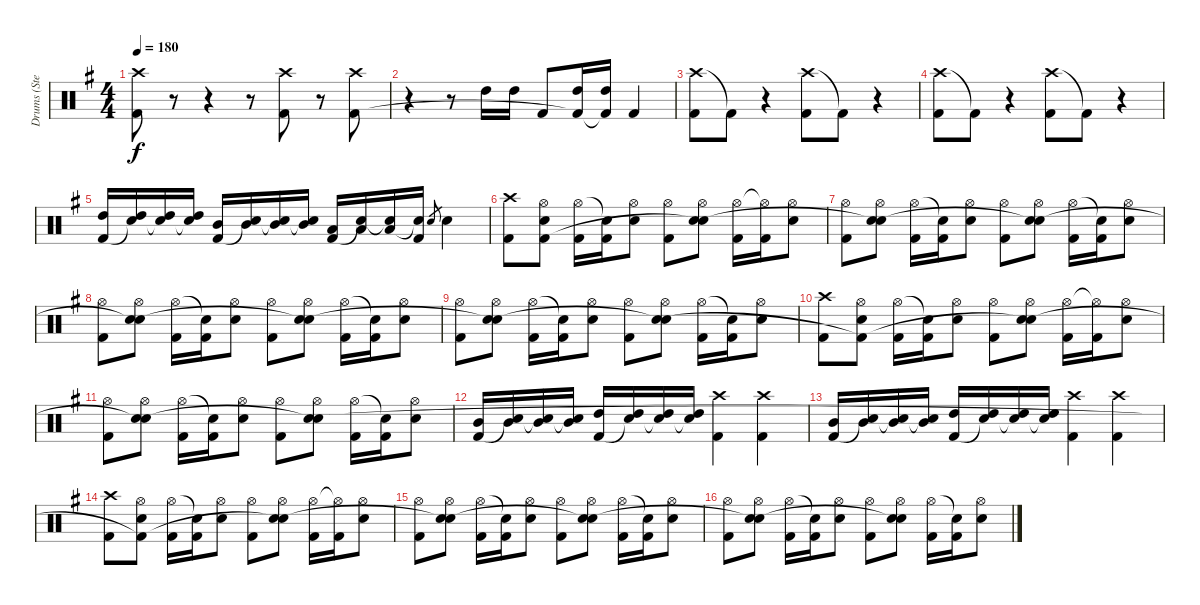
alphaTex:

\track ("Drums (Stevo)" "Drums (Ste") {instrument percussion}
\staff {score}
\articulation defaults
\ts (4 4)
\tempo 180
\clef neutral
\ks g
("Crash high (hit)" "Kick (hit) 2").8{dy f} r.8 r.4 r.8 ("Crash high (hit)" "Kick (hit) 2").8 r.8 ("Crash high (hit)" "Kick (hit) 2").8 |
r.4 r.8 "High Tom (hit)".16 "High Tom (hit)".16 "Kick (hit) 2".8 ("High Tom (hit)" "Kick (hit) 2"{t}).16 ("High Tom (hit)" "Kick (hit) 2"{t}).16 "Kick (hit) 2".4 |
("Crash high (hit)" "Kick (hit) 2").8 "Kick (hit) 2"{t}.8 r.4 ("Crash high (hit)" "Kick (hit) 2").8 "Kick (hit) 2"{t}.8 r.4 |
("Crash high (hit)" "Kick (hit) 2").8 "Kick (hit) 2"{t}.8 r.4 ("Crash high (hit)" "Kick (hit) 2").8 "Kick (hit) 2"{t}.8 r.4 |
("High Tom (hit)" "Kick (hit) 2").16 ("High Tom (hit)" "Snare (hit)"{t}).16 ("High Tom (hit)" "Snare (hit)"{t}).16 ("High Tom (hit)" "Snare (hit)"{t}).16 ("Mid Tom (hit)" "Kick (hit) 2").16 ("Mid Tom (hit)" "Snare (hit)"{t}).16 ("Mid Tom (hit)" "Snare (hit)"{t}).16 ("Mid Tom (hit)" "Snare (hit)"{t}).16 ("Low Tom (hit)" "Kick (hit) 2").16 ("Low Tom (hit)" "Snare (hit)"{t}).16 ("Low Tom (hit)" "Snare (hit)"{t}).16 ("Snare (hit)"{t} "Kick (hit) 2").16 "Snare (hit) 2".8{gr} "Snare (hit) 2".4 |
("Crash high (hit)" "Kick (hit) 2").8 ("Hi-Hat (open)" "Snare (hit) 2" "Kick (hit) 2").8 ("Hi-Hat (open)" "Kick (hit) 2").16 ("Snare (hit)"{t} "Kick (hit) 2").16 ("Hi-Hat (open)" "Snare (hit) 2").8 ("Hi-Hat (open)" "Kick (hit) 2").8 ("Hi-Hat (open)" "Snare (hit) 2" "Snare (hit)"{t}).8 ("Hi-Hat (open)" "Kick (hit) 2").16 ("Hi-Hat (open)"{t} "Kick (hit) 2").16 ("Hi-Hat (open)" "Snare (hit) 2").8 |
("Hi-Hat (open)" "Kick (hit) 2").8 ("Hi-Hat (open)" "Snare (hit) 2" "Snare (hit)"{t}).8 ("Hi-Hat (open)" "Kick (hit) 2").16 ("Snare (hit)"{t} "Kick (hit) 2").16 ("Hi-Hat (open)" "Snare (hit) 2").8 ("Hi-Hat (open)" "Kick (hit) 2").8 ("Hi-Hat (open)" "Snare (hit) 2" "Snare (hit)"{t}).8 ("Hi-Hat (open)" "Kick (hit) 2").16 ("Snare (hit)"{t} "Kick (hit) 2").16 ("Hi-Hat (open)" "Snare (hit) 2").8 |
("Hi-Hat (open)" "Kick (hit) 2").8 ("Hi-Hat (open)" "Snare (hit) 2" "Snare (hit)"{t}).8 ("Hi-Hat (open)" "Kick (hit) 2").16 ("Snare (hit)"{t} "Kick (hit) 2").16 ("Hi-Hat (open)" "Snare (hit) 2").8 ("Hi-Hat (open)" "Kick (hit) 2").8 ("Hi-Hat (open)" "Snare (hit) 2" "Snare (hit)"{t}).8 ("Hi-Hat (open)" "Kick (hit) 2").16 ("Snare (hit)"{t} "Kick (hit) 2").16 ("Hi-Hat (open)" "Snare (hit) 2").8 |
("Hi-Hat (open)" "Kick (hit) 2").8 ("Hi-Hat (open)" "Snare (hit) 2" "Snare (hit)"{t}).8 ("Hi-Hat (open)" "Kick (hit) 2").16 ("Snare (hit)"{t} "Kick (hit) 2").16 ("Hi-Hat (open)" "Snare (hit) 2").8 ("Hi-Hat (open)" "Kick (hit) 2").8 ("Hi-Hat (open)" "Snare (hit) 2" "Snare (hit)"{t}).8 ("Hi-Hat (open)" "Kick (hit) 2").16 ("Snare (hit)"{t} "Kick (hit) 2").16 ("Hi-Hat (open)" "Snare (hit) 2").8 |
("Crash high (hit)" "Kick (hit) 2").8 ("Hi-Hat (open)" "Snare (hit) 2" "Kick (hit) 2"{t}).8 ("Hi-Hat (open)" "Kick (hit) 2").16 ("Snare (hit)"{t} "Kick (hit) 2").16 ("Hi-Hat (open)" "Snare (hit) 2").8 ("Hi-Hat (open)" "Kick (hit) 2").8 ("Hi-Hat (open)" "Snare (hit) 2" "Snare (hit)"{t}).8 ("Hi-Hat (open)" "Kick (hit) 2").16 ("Hi-Hat (open)"{t} "Kick (hit) 2").16 ("Hi-Hat (open)" "Snare (hit) 2").8 |
("Hi-Hat (open)" "Kick (hit) 2").8 ("Hi-Hat (open)" "Snare (hit) 2" "Snare (hit)"{t}).8 ("Hi-Hat (open)" "Kick (hit) 2").16 ("Snare (hit)"{t} "Kick (hit) 2").16 ("Hi-Hat (open)" "Snare (hit) 2").8 ("Hi-Hat (open)" "Kick (hit) 2").8 ("Hi-Hat (open)" "Snare (hit) 2" "Snare (hit)"{t}).8 ("Hi-Hat (open)" "Kick (hit) 2").16 ("Snare (hit)"{t} "Kick (hit) 2").16 ("Hi-Hat (open)" "Snare (hit) 2").8 |
("Mid Tom (hit)" "Kick (hit) 2").16 ("Mid Tom (hit)" "Snare (hit)"{t}).16 ("Mid Tom (hit)" "Snare (hit)"{t}).16 ("Mid Tom (hit)" "Snare (hit)"{t}).16 ("High Tom (hit)" "Kick (hit) 2").16 ("High Tom (hit)" "Snare (hit)"{t}).16 ("High Tom (hit)" "Snare (hit)"{t}).16 ("High Tom (hit)" "Snare (hit)"{t}).16 ("Crash high (hit)" "Kick (hit) 2").4 ("Crash high (hit)" "Kick (hit) 2").4 |
("Mid Tom (hit)" "Kick (hit) 2").16 ("Mid Tom (hit)" "Snare (hit)"{t}).16 ("Mid Tom (hit)" "Snare (hit)"{t}).16 ("Mid Tom (hit)" "Snare (hit)"{t}).16 ("High Tom (hit)" "Kick (hit) 2").16 ("High Tom (hit)" "Snare (hit)"{t}).16 ("High Tom (hit)" "Snare (hit)"{t}).16 ("High Tom (hit)" "Snare (hit)"{t}).16 ("Crash high (hit)" "Kick (hit) 2").4 ("Crash high (hit)" "Kick (hit) 2").4 |
("Crash high (hit)" "Kick (hit) 2").8 ("Hi-Hat (open)" "Snare (hit) 2" "Kick (hit) 2"{t}).8 ("Hi-Hat (open)" "Kick (hit) 2").16 ("Snare (hit)"{t} "Kick (hit) 2").16 ("Hi-Hat (open)" "Snare (hit) 2").8 ("Hi-Hat (open)" "Kick (hit) 2").8 ("Hi-Hat (open)" "Snare (hit) 2" "Snare (hit)"{t}).8 ("Hi-Hat (open)" "Kick (hit) 2").16 ("Hi-Hat (open)"{t} "Kick (hit) 2").16 ("Hi-Hat (open)" "Snare (hit) 2").8 |
("Hi-Hat (open)" "Kick (hit) 2").8 ("Hi-Hat (open)" "Snare (hit) 2" "Snare (hit)"{t}).8 ("Hi-Hat (open)" "Kick (hit) 2").16 ("Snare (hit)"{t} "Kick (hit) 2").16 ("Hi-Hat (open)" "Snare (hit) 2").8 ("Hi-Hat (open)" "Kick (hit) 2").8 ("Hi-Hat (open)" "Snare (hit) 2" "Snare (hit)"{t}).8 ("Hi-Hat (open)" "Kick (hit) 2").16 ("Snare (hit)"{t} "Kick (hit) 2").16 ("Hi-Hat (open)" "Snare (hit) 2").8 |
("Hi-Hat (open)" "Kick (hit) 2").8 ("Hi-Hat (open)" "Snare (hit) 2" "Snare (hit)"{t}).8 ("Hi-Hat (open)" "Kick (hit) 2").16 ("Snare (hit)"{t} "Kick (hit) 2").16 ("Hi-Hat (open)" "Snare (hit) 2").8 ("Hi-Hat (open)" "Kick (hit) 2").8 ("Hi-Hat (open)" "Snare (hit) 2" "Snare (hit)"{t}).8 ("Hi-Hat (open)" "Kick (hit) 2").16 ("Snare (hit)"{t} "Kick (hit) 2").16 ("Hi-Hat (open)" "Snare (hit) 2").8
